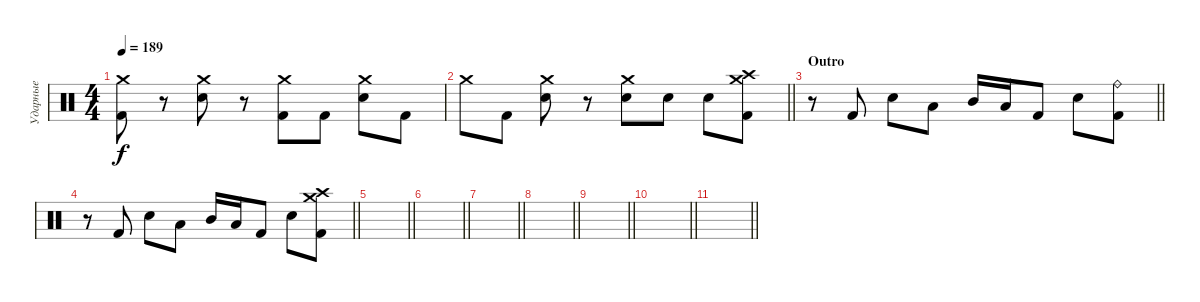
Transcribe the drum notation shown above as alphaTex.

\track ("Ударные" "Ударные") {instrument percussion}
\staff {score}
\articulation defaults
\ts (4 4)
\tempo 189
\clef neutral
\ks c
("Crash medium (hit)" "Kick (hit) 2").8{dy f} r.8 ("Crash medium (hit)" "Electric Snare (hit)").8 r.8 ("Crash medium (hit)" "Kick (hit) 2").8 "Kick (hit) 2".8 ("Crash medium (hit)" "Electric Snare (hit)").8 "Kick (hit) 2".8 |
\barLineRight lightlight "Crash medium (hit)".8 "Kick (hit) 2".8
("Crash medium (hit)" "Electric Snare (hit)").8 r.8 ("Crash medium (hit)" "Electric Snare (hit)").8 "Electric Snare (hit)".8 "Electric Snare (hit)".8 ("Crash medium (hit)" "Crash high (hit)" "Kick (hit) 2").8 |
\section ("" "Outro")
\barLineRight lightlight
r.8 "Kick (hit) 2".8 "Electric Snare (hit)".8 "Low Tom (hit)".8 "Mid Tom (hit)".16 "Low Tom (hit)".16 "Kick (hit) 2".8 "Electric Snare (hit)".8 ("Ride (bell)" "Kick (hit) 2").8 |
\barLineRight lightlight
r.8 "Kick (hit) 2".8 "Electric Snare (hit)".8 "Low Tom (hit)".8 "Mid Tom (hit)".16 "Low Tom (hit)".16 "Kick (hit) 2".8 "Electric Snare (hit)".8 ("Crash medium (hit)" "Crash high (hit)" "Kick (hit) 2").8 |
\barLineRight lightlight
|
\barLineRight lightlight
|
\barLineRight lightlight
|
\barLineRight lightlight
|
\barLineRight lightlight
|
\barLineRight lightlight
|
\barLineRight lightlight
